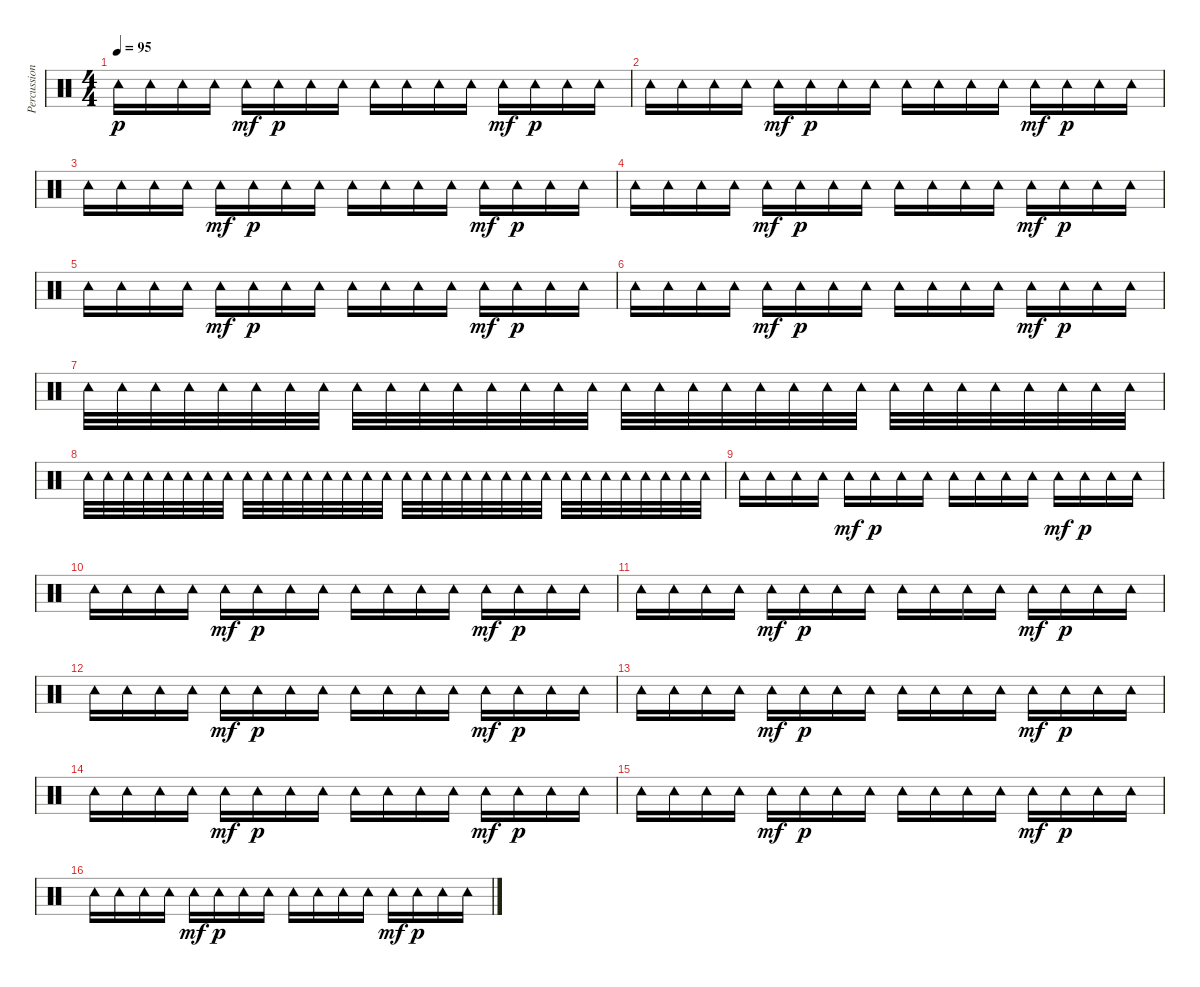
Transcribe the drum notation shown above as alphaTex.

\track ("Percussion" "Percussion") {instrument percussion}
\staff {score}
\articulation defaults
\ts (4 4)
\tempo 95
\clef neutral
\ks c "Tambourine (hit)".16{dy p} "Tambourine (hit)".16 "Tambourine (hit)".16 "Tambourine (hit)".16 "Tambourine (hit)".16{dy mf} "Tambourine (hit)".16{dy p} "Tambourine (hit)".16 "Tambourine (hit)".16 "Tambourine (hit)".16 "Tambourine (hit)".16 "Tambourine (hit)".16 "Tambourine (hit)".16 "Tambourine (hit)".16{dy mf} "Tambourine (hit)".16{dy p} "Tambourine (hit)".16 "Tambourine (hit)".16
|
"Tambourine (hit)".16 "Tambourine (hit)".16 "Tambourine (hit)".16 "Tambourine (hit)".16 "Tambourine (hit)".16{dy mf} "Tambourine (hit)".16{dy p} "Tambourine (hit)".16 "Tambourine (hit)".16 "Tambourine (hit)".16 "Tambourine (hit)".16 "Tambourine (hit)".16 "Tambourine (hit)".16 "Tambourine (hit)".16{dy mf} "Tambourine (hit)".16{dy p} "Tambourine (hit)".16 "Tambourine (hit)".16 |
"Tambourine (hit)".16 "Tambourine (hit)".16 "Tambourine (hit)".16 "Tambourine (hit)".16 "Tambourine (hit)".16{dy mf} "Tambourine (hit)".16{dy p} "Tambourine (hit)".16 "Tambourine (hit)".16 "Tambourine (hit)".16 "Tambourine (hit)".16 "Tambourine (hit)".16 "Tambourine (hit)".16 "Tambourine (hit)".16{dy mf} "Tambourine (hit)".16{dy p} "Tambourine (hit)".16 "Tambourine (hit)".16 |
"Tambourine (hit)".16 "Tambourine (hit)".16 "Tambourine (hit)".16 "Tambourine (hit)".16 "Tambourine (hit)".16{dy mf} "Tambourine (hit)".16{dy p} "Tambourine (hit)".16 "Tambourine (hit)".16 "Tambourine (hit)".16 "Tambourine (hit)".16 "Tambourine (hit)".16 "Tambourine (hit)".16 "Tambourine (hit)".16{dy mf} "Tambourine (hit)".16{dy p} "Tambourine (hit)".16 "Tambourine (hit)".16 |
"Tambourine (hit)".16 "Tambourine (hit)".16 "Tambourine (hit)".16 "Tambourine (hit)".16 "Tambourine (hit)".16{dy mf} "Tambourine (hit)".16{dy p} "Tambourine (hit)".16 "Tambourine (hit)".16 "Tambourine (hit)".16 "Tambourine (hit)".16 "Tambourine (hit)".16 "Tambourine (hit)".16 "Tambourine (hit)".16{dy mf} "Tambourine (hit)".16{dy p} "Tambourine (hit)".16 "Tambourine (hit)".16 |
"Tambourine (hit)".16 "Tambourine (hit)".16 "Tambourine (hit)".16 "Tambourine (hit)".16 "Tambourine (hit)".16{dy mf} "Tambourine (hit)".16{dy p} "Tambourine (hit)".16 "Tambourine (hit)".16 "Tambourine (hit)".16 "Tambourine (hit)".16 "Tambourine (hit)".16 "Tambourine (hit)".16 "Tambourine (hit)".16{dy mf} "Tambourine (hit)".16{dy p} "Tambourine (hit)".16 "Tambourine (hit)".16 |
"Tambourine (hit)".32 "Tambourine (hit)".32 "Tambourine (hit)".32 "Tambourine (hit)".32 "Tambourine (hit)".32 "Tambourine (hit)".32 "Tambourine (hit)".32 "Tambourine (hit)".32 "Tambourine (hit)".32 "Tambourine (hit)".32 "Tambourine (hit)".32 "Tambourine (hit)".32 "Tambourine (hit)".32 "Tambourine (hit)".32 "Tambourine (hit)".32 "Tambourine (hit)".32 "Tambourine (hit)".32 "Tambourine (hit)".32 "Tambourine (hit)".32 "Tambourine (hit)".32 "Tambourine (hit)".32 "Tambourine (hit)".32 "Tambourine (hit)".32 "Tambourine (hit)".32 "Tambourine (hit)".32 "Tambourine (hit)".32 "Tambourine (hit)".32 "Tambourine (hit)".32 "Tambourine (hit)".32 "Tambourine (hit)".32 "Tambourine (hit)".32 "Tambourine (hit)".32 |
"Tambourine (hit)".32 "Tambourine (hit)".32 "Tambourine (hit)".32 "Tambourine (hit)".32 "Tambourine (hit)".32 "Tambourine (hit)".32 "Tambourine (hit)".32 "Tambourine (hit)".32 "Tambourine (hit)".32 "Tambourine (hit)".32 "Tambourine (hit)".32 "Tambourine (hit)".32 "Tambourine (hit)".32 "Tambourine (hit)".32 "Tambourine (hit)".32 "Tambourine (hit)".32 "Tambourine (hit)".32 "Tambourine (hit)".32 "Tambourine (hit)".32 "Tambourine (hit)".32 "Tambourine (hit)".32 "Tambourine (hit)".32 "Tambourine (hit)".32 "Tambourine (hit)".32 "Tambourine (hit)".32 "Tambourine (hit)".32 "Tambourine (hit)".32 "Tambourine (hit)".32 "Tambourine (hit)".32 "Tambourine (hit)".32 "Tambourine (hit)".32 "Tambourine (hit)".32 |
"Tambourine (hit)".16 "Tambourine (hit)".16 "Tambourine (hit)".16 "Tambourine (hit)".16 "Tambourine (hit)".16{dy mf} "Tambourine (hit)".16{dy p} "Tambourine (hit)".16 "Tambourine (hit)".16 "Tambourine (hit)".16 "Tambourine (hit)".16 "Tambourine (hit)".16 "Tambourine (hit)".16 "Tambourine (hit)".16{dy mf} "Tambourine (hit)".16{dy p} "Tambourine (hit)".16 "Tambourine (hit)".16 |
"Tambourine (hit)".16 "Tambourine (hit)".16 "Tambourine (hit)".16 "Tambourine (hit)".16 "Tambourine (hit)".16{dy mf} "Tambourine (hit)".16{dy p} "Tambourine (hit)".16 "Tambourine (hit)".16 "Tambourine (hit)".16 "Tambourine (hit)".16 "Tambourine (hit)".16 "Tambourine (hit)".16 "Tambourine (hit)".16{dy mf} "Tambourine (hit)".16{dy p} "Tambourine (hit)".16 "Tambourine (hit)".16 |
"Tambourine (hit)".16 "Tambourine (hit)".16 "Tambourine (hit)".16 "Tambourine (hit)".16 "Tambourine (hit)".16{dy mf} "Tambourine (hit)".16{dy p} "Tambourine (hit)".16 "Tambourine (hit)".16 "Tambourine (hit)".16 "Tambourine (hit)".16 "Tambourine (hit)".16 "Tambourine (hit)".16 "Tambourine (hit)".16{dy mf} "Tambourine (hit)".16{dy p} "Tambourine (hit)".16 "Tambourine (hit)".16 |
"Tambourine (hit)".16 "Tambourine (hit)".16 "Tambourine (hit)".16 "Tambourine (hit)".16 "Tambourine (hit)".16{dy mf} "Tambourine (hit)".16{dy p} "Tambourine (hit)".16 "Tambourine (hit)".16 "Tambourine (hit)".16 "Tambourine (hit)".16 "Tambourine (hit)".16 "Tambourine (hit)".16 "Tambourine (hit)".16{dy mf} "Tambourine (hit)".16{dy p} "Tambourine (hit)".16 "Tambourine (hit)".16 |
"Tambourine (hit)".16 "Tambourine (hit)".16 "Tambourine (hit)".16 "Tambourine (hit)".16 "Tambourine (hit)".16{dy mf} "Tambourine (hit)".16{dy p} "Tambourine (hit)".16 "Tambourine (hit)".16 "Tambourine (hit)".16 "Tambourine (hit)".16 "Tambourine (hit)".16 "Tambourine (hit)".16 "Tambourine (hit)".16{dy mf} "Tambourine (hit)".16{dy p} "Tambourine (hit)".16 "Tambourine (hit)".16 |
"Tambourine (hit)".16 "Tambourine (hit)".16 "Tambourine (hit)".16 "Tambourine (hit)".16 "Tambourine (hit)".16{dy mf} "Tambourine (hit)".16{dy p} "Tambourine (hit)".16 "Tambourine (hit)".16 "Tambourine (hit)".16 "Tambourine (hit)".16 "Tambourine (hit)".16 "Tambourine (hit)".16 "Tambourine (hit)".16{dy mf} "Tambourine (hit)".16{dy p} "Tambourine (hit)".16 "Tambourine (hit)".16 |
"Tambourine (hit)".16 "Tambourine (hit)".16 "Tambourine (hit)".16 "Tambourine (hit)".16 "Tambourine (hit)".16{dy mf} "Tambourine (hit)".16{dy p} "Tambourine (hit)".16 "Tambourine (hit)".16 "Tambourine (hit)".16 "Tambourine (hit)".16 "Tambourine (hit)".16 "Tambourine (hit)".16 "Tambourine (hit)".16{dy mf} "Tambourine (hit)".16{dy p} "Tambourine (hit)".16 "Tambourine (hit)".16 |
"Tambourine (hit)".16 "Tambourine (hit)".16 "Tambourine (hit)".16 "Tambourine (hit)".16 "Tambourine (hit)".16{dy mf} "Tambourine (hit)".16{dy p} "Tambourine (hit)".16 "Tambourine (hit)".16 "Tambourine (hit)".16 "Tambourine (hit)".16 "Tambourine (hit)".16 "Tambourine (hit)".16 "Tambourine (hit)".16{dy mf} "Tambourine (hit)".16{dy p} "Tambourine (hit)".16 "Tambourine (hit)".16
